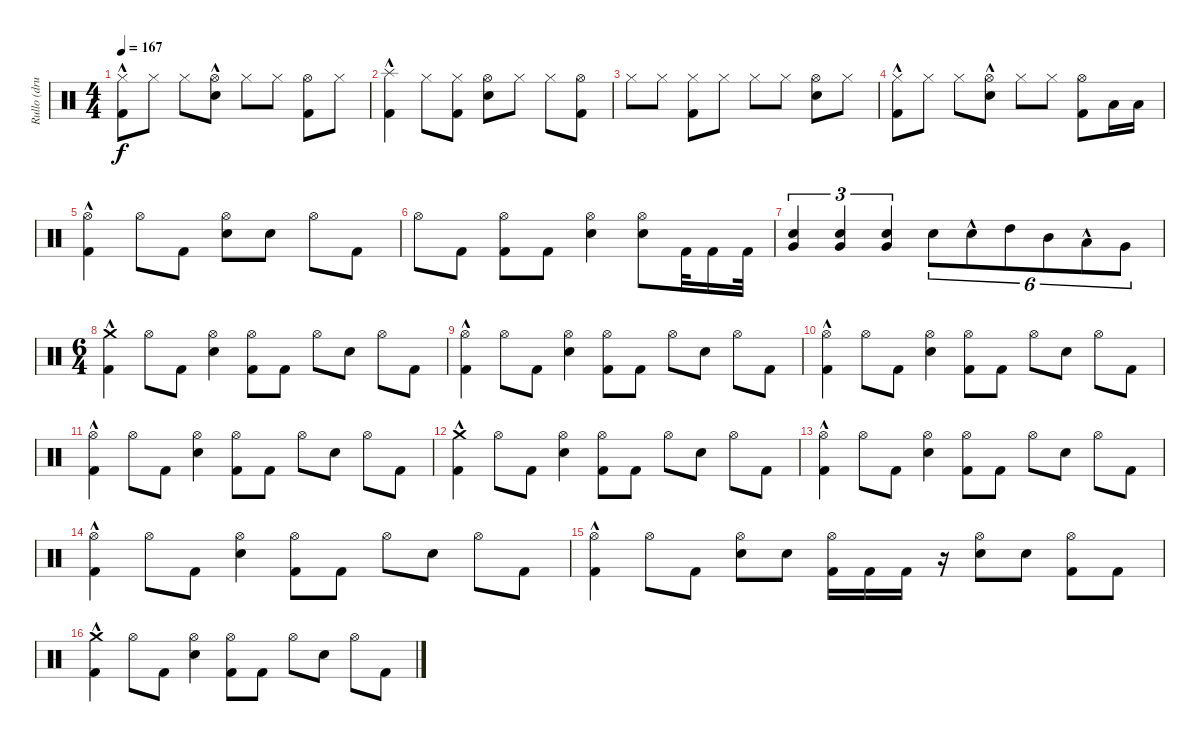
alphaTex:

\track ("Rullo (drums)" "Rullo (dru") {instrument percussion}
\staff {score}
\articulation defaults
\ts (4 4)
\tempo 167
\clef neutral
\ks c
("Hi-Hat (closed)" "Kick (hit) 2"{hac}).8{dy f} "Hi-Hat (closed)".8 "Hi-Hat (closed)".8 ("Hi-Hat (open)" "Electric Snare (hit)"{hac}).8 "Hi-Hat (closed)".8 "Hi-Hat (closed)".8 ("Hi-Hat (open)" "Kick (hit) 2").8 "Hi-Hat (closed)".8 |
("Splash (hit)" "Kick (hit) 2"{hac}).4 "Hi-Hat (closed)".8 ("Hi-Hat (closed)" "Kick (hit) 2").8 ("Hi-Hat (open)" "Electric Snare (hit)").8 "Hi-Hat (closed)".8 "Hi-Hat (closed)".8 ("Hi-Hat (open)" "Kick (hit) 2").8 |
"Hi-Hat (closed)".8 "Hi-Hat (closed)".8 ("Hi-Hat (closed)" "Kick (hit) 2").8 "Hi-Hat (closed)".8 "Hi-Hat (closed)".8 "Hi-Hat (closed)".8 ("Hi-Hat (open)" "Electric Snare (hit)").8 "Hi-Hat (closed)".8 |
("Hi-Hat (closed)" "Kick (hit) 2"{hac}).8 "Hi-Hat (closed)".8 "Hi-Hat (closed)".8 ("Hi-Hat (open)" "Electric Snare (hit)"{hac}).8 "Hi-Hat (closed)".8 "Hi-Hat (closed)".8 ("Hi-Hat (open)" "Kick (hit) 2").8 "Low Tom (hit)".16 "Low Tom (hit)".16 |
("Hi-Hat (open)" "Kick (hit) 2"{hac}).4 "Hi-Hat (open)".8 "Kick (hit) 2".8 ("Hi-Hat (open)" "Electric Snare (hit)").8 "Electric Snare (hit)".8 "Hi-Hat (open)".8 "Kick (hit) 2".8 |
"Hi-Hat (open)".8 "Kick (hit) 2".8 ("Hi-Hat (open)" "Kick (hit) 2").8 "Kick (hit) 2".8 ("Hi-Hat (open)" "Electric Snare (hit)").4 ("Hi-Hat (open)" "Electric Snare (hit)").8 "Kick (hit) 2".32 "Kick (hit) 2".16 "Kick (hit) 2".32 |
("Very Low Tom (hit)" "Electric Snare (hit)").4{tu (3 2)} ("Very Low Tom (hit)" "Electric Snare (hit)").4{tu (3 2)} ("Very Low Tom (hit)" "Electric Snare (hit)").4{tu (3 2)} "Electric Snare (hit)".8{tu (6 4)} "Electric Snare (hit)"{hac}.8{tu (6 4)} "High Tom (hit)".8{tu (6 4)} "Mid Tom (hit)".8{tu (6 4)} "Low Tom (hit)"{hac}.8{tu (6 4)} "Very Low Tom (hit)".8{tu (6 4)} |
\ts (6 4)
("Crash medium (hit)" "Kick (hit) 2"{hac}).4 "Hi-Hat (open)".8 "Kick (hit) 2".8 ("Hi-Hat (open)" "Electric Snare (hit)").4 ("Hi-Hat (open)" "Kick (hit) 2").8 "Kick (hit) 2".8 "Hi-Hat (open)".8 "Electric Snare (hit)".8 "Hi-Hat (open)".8 "Kick (hit) 2".8 |
("Hi-Hat (open)" "Kick (hit) 2"{hac}).4 "Hi-Hat (open)".8 "Kick (hit) 2".8 ("Hi-Hat (open)" "Electric Snare (hit)").4 ("Hi-Hat (open)" "Kick (hit) 2").8 "Kick (hit) 2".8 "Hi-Hat (open)".8 "Electric Snare (hit)".8 "Hi-Hat (open)".8 "Kick (hit) 2".8 |
("Hi-Hat (open)" "Kick (hit) 2"{hac}).4 "Hi-Hat (open)".8 "Kick (hit) 2".8 ("Hi-Hat (open)" "Electric Snare (hit)").4 ("Hi-Hat (open)" "Kick (hit) 2").8 "Kick (hit) 2".8 "Hi-Hat (open)".8 "Electric Snare (hit)".8 "Hi-Hat (open)".8 "Kick (hit) 2".8 |
("Hi-Hat (open)" "Kick (hit) 2"{hac}).4 "Hi-Hat (open)".8 "Kick (hit) 2".8 ("Hi-Hat (open)" "Electric Snare (hit)").4 ("Hi-Hat (open)" "Kick (hit) 2").8 "Kick (hit) 2".8 "Hi-Hat (open)".8 "Electric Snare (hit)".8 "Hi-Hat (open)".8 "Kick (hit) 2".8 |
("Crash medium (hit)" "Kick (hit) 2"{hac}).4 "Hi-Hat (open)".8 "Kick (hit) 2".8 ("Hi-Hat (open)" "Electric Snare (hit)").4 ("Hi-Hat (open)" "Kick (hit) 2").8 "Kick (hit) 2".8 "Hi-Hat (open)".8 "Electric Snare (hit)".8 "Hi-Hat (open)".8 "Kick (hit) 2".8 |
("Hi-Hat (open)" "Kick (hit) 2"{hac}).4 "Hi-Hat (open)".8 "Kick (hit) 2".8 ("Hi-Hat (open)" "Electric Snare (hit)").4 ("Hi-Hat (open)" "Kick (hit) 2").8 "Kick (hit) 2".8 "Hi-Hat (open)".8 "Electric Snare (hit)".8 "Hi-Hat (open)".8 "Kick (hit) 2".8 |
("Hi-Hat (open)" "Kick (hit) 2"{hac}).4 "Hi-Hat (open)".8 "Kick (hit) 2".8 ("Hi-Hat (open)" "Electric Snare (hit)").4 ("Hi-Hat (open)" "Kick (hit) 2").8 "Kick (hit) 2".8 "Hi-Hat (open)".8 "Electric Snare (hit)".8 "Hi-Hat (open)".8 "Kick (hit) 2".8 |
("Hi-Hat (open)" "Kick (hit) 2"{hac}).4 "Hi-Hat (open)".8 "Kick (hit) 2".8 ("Hi-Hat (open)" "Electric Snare (hit)").8 "Electric Snare (hit)".8 ("Kick (hit) 2" "Hi-Hat (open)").16 "Kick (hit) 2".16 "Kick (hit) 2".16 r.16 ("Electric Snare (hit)" "Hi-Hat (open)").8 "Electric Snare (hit)".8 ("Kick (hit) 2" "Hi-Hat (open)").8 "Kick (hit) 2".8 |
("Crash medium (hit)" "Kick (hit) 2"{hac}).4 "Hi-Hat (open)".8 "Kick (hit) 2".8 ("Hi-Hat (open)" "Electric Snare (hit)").4 ("Hi-Hat (open)" "Kick (hit) 2").8 "Kick (hit) 2".8 "Hi-Hat (open)".8 "Electric Snare (hit)".8 "Hi-Hat (open)".8 "Kick (hit) 2".8
